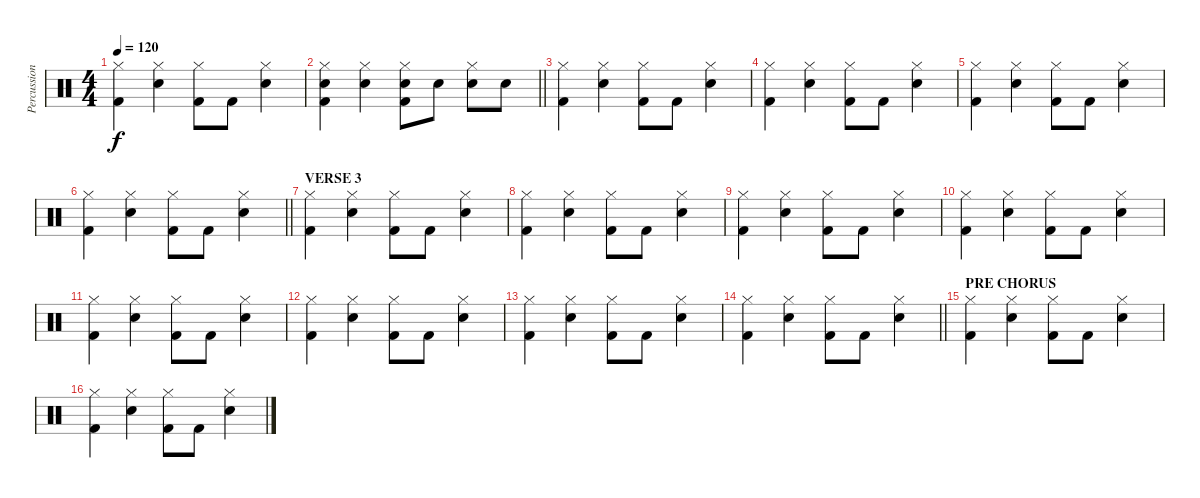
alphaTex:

\track ("Percussion" "Percussion") {instrument percussion}
\staff {score}
\articulation defaults
\ts (4 4)
\tempo 120
\clef neutral
\ks c
("Hi-Hat (closed)" "Kick (hit) 2").4{dy f} ("Hi-Hat (closed)" "Snare (hit) 2").4 ("Hi-Hat (closed)" "Kick (hit) 2").8 "Kick (hit) 2".8 ("Hi-Hat (closed)" "Snare (hit) 2").4 |
\barLineRight lightlight
("Hi-Hat (closed)" "Kick (hit) 2" "Snare (hit) 2").4 ("Hi-Hat (closed)" "Snare (hit) 2").4 ("Hi-Hat (closed)" "Kick (hit) 2" "Snare (hit) 2").8 "Snare (hit) 2".8 ("Hi-Hat (closed)" "Snare (hit) 2").8 "Snare (hit) 2".8 |
("Hi-Hat (closed)" "Kick (hit) 2").4 ("Hi-Hat (closed)" "Snare (hit) 2").4 ("Hi-Hat (closed)" "Kick (hit) 2").8 "Kick (hit) 2".8 ("Hi-Hat (closed)" "Snare (hit) 2").4 |
("Hi-Hat (closed)" "Kick (hit) 2").4 ("Hi-Hat (closed)" "Snare (hit) 2").4 ("Hi-Hat (closed)" "Kick (hit) 2").8 "Kick (hit) 2".8 ("Hi-Hat (closed)" "Snare (hit) 2").4 |
("Hi-Hat (closed)" "Kick (hit) 2").4 ("Hi-Hat (closed)" "Snare (hit) 2").4 ("Hi-Hat (closed)" "Kick (hit) 2").8 "Kick (hit) 2".8 ("Hi-Hat (closed)" "Snare (hit) 2").4 |
\barLineRight lightlight
("Hi-Hat (closed)" "Kick (hit) 2").4 ("Hi-Hat (closed)" "Snare (hit) 2").4 ("Hi-Hat (closed)" "Kick (hit) 2").8 "Kick (hit) 2".8 ("Hi-Hat (closed)" "Snare (hit) 2").4 |
\section ("" "VERSE 3")
("Hi-Hat (closed)" "Kick (hit) 2").4 ("Hi-Hat (closed)" "Snare (hit) 2").4 ("Hi-Hat (closed)" "Kick (hit) 2").8 "Kick (hit) 2".8 ("Hi-Hat (closed)" "Snare (hit) 2").4 |
("Hi-Hat (closed)" "Kick (hit) 2").4 ("Hi-Hat (closed)" "Snare (hit) 2").4 ("Hi-Hat (closed)" "Kick (hit) 2").8 "Kick (hit) 2".8 ("Hi-Hat (closed)" "Snare (hit) 2").4 |
("Hi-Hat (closed)" "Kick (hit) 2").4 ("Hi-Hat (closed)" "Snare (hit) 2").4 ("Hi-Hat (closed)" "Kick (hit) 2").8 "Kick (hit) 2".8 ("Hi-Hat (closed)" "Snare (hit) 2").4 |
("Hi-Hat (closed)" "Kick (hit) 2").4 ("Hi-Hat (closed)" "Snare (hit) 2").4 ("Hi-Hat (closed)" "Kick (hit) 2").8 "Kick (hit) 2".8 ("Hi-Hat (closed)" "Snare (hit) 2").4 |
("Hi-Hat (closed)" "Kick (hit) 2").4 ("Hi-Hat (closed)" "Snare (hit) 2").4 ("Hi-Hat (closed)" "Kick (hit) 2").8 "Kick (hit) 2".8 ("Hi-Hat (closed)" "Snare (hit) 2").4 |
("Hi-Hat (closed)" "Kick (hit) 2").4 ("Hi-Hat (closed)" "Snare (hit) 2").4 ("Hi-Hat (closed)" "Kick (hit) 2").8 "Kick (hit) 2".8 ("Hi-Hat (closed)" "Snare (hit) 2").4 |
("Hi-Hat (closed)" "Kick (hit) 2").4 ("Hi-Hat (closed)" "Snare (hit) 2").4 ("Hi-Hat (closed)" "Kick (hit) 2").8 "Kick (hit) 2".8 ("Hi-Hat (closed)" "Snare (hit) 2").4 |
\barLineRight lightlight
("Hi-Hat (closed)" "Kick (hit) 2").4 ("Hi-Hat (closed)" "Snare (hit) 2").4 ("Hi-Hat (closed)" "Kick (hit) 2").8 "Kick (hit) 2".8 ("Hi-Hat (closed)" "Snare (hit) 2").4 |
\section ("" "PRE CHORUS")
("Hi-Hat (closed)" "Kick (hit) 2").4 ("Hi-Hat (closed)" "Snare (hit) 2").4 ("Hi-Hat (closed)" "Kick (hit) 2").8 "Kick (hit) 2".8 ("Hi-Hat (closed)" "Snare (hit) 2").4 |
("Hi-Hat (closed)" "Kick (hit) 2").4 ("Hi-Hat (closed)" "Snare (hit) 2").4 ("Hi-Hat (closed)" "Kick (hit) 2").8 "Kick (hit) 2".8 ("Hi-Hat (closed)" "Snare (hit) 2").4
